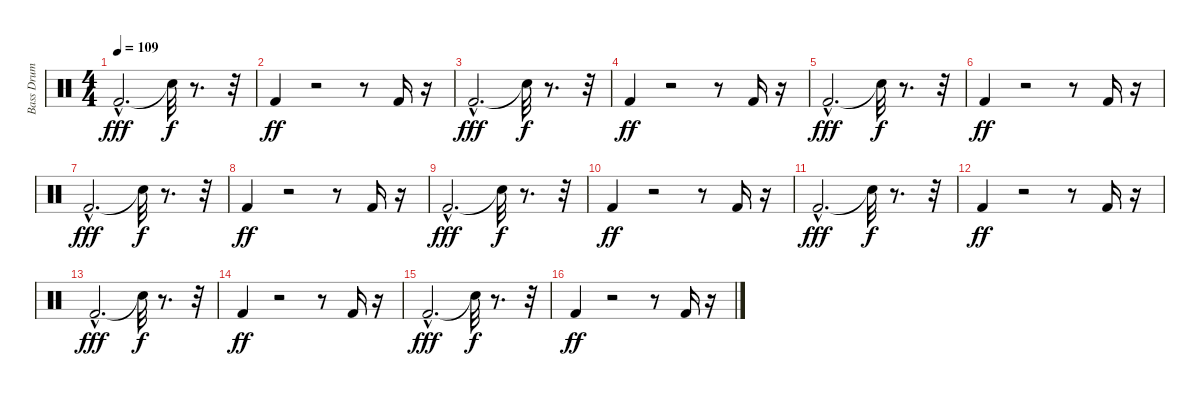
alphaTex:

\track ("Bass Drum" "Bass Drum") {instrument percussion}
\staff {score}
\articulation defaults
\ts (4 4)
\tempo 109
\clef neutral
\ks c "Kick (hit) 2"{hac}.2{d dy fff} "Snare (hit)"{t}.32{dy f}
r.8{d} r.32 |
"Kick (hit) 2".4{dy ff} r.2 r.8 "Kick (hit) 2".16 r.16 |
"Kick (hit) 2"{hac}.2{d dy fff} "Snare (hit)"{t}.32{dy f} r.8{d} r.32 |
"Kick (hit) 2".4{dy ff} r.2 r.8 "Kick (hit) 2".16 r.16 |
"Kick (hit) 2"{hac}.2{d dy fff} "Snare (hit)"{t}.32{dy f} r.8{d} r.32 |
"Kick (hit) 2".4{dy ff} r.2 r.8 "Kick (hit) 2".16 r.16 |
"Kick (hit) 2"{hac}.2{d dy fff} "Snare (hit)"{t}.32{dy f} r.8{d} r.32 |
"Kick (hit) 2".4{dy ff} r.2 r.8 "Kick (hit) 2".16 r.16 |
"Kick (hit) 2"{hac}.2{d dy fff} "Snare (hit)"{t}.32{dy f} r.8{d} r.32 |
"Kick (hit) 2".4{dy ff} r.2 r.8 "Kick (hit) 2".16 r.16 |
"Kick (hit) 2"{hac}.2{d dy fff} "Snare (hit)"{t}.32{dy f} r.8{d} r.32 |
"Kick (hit) 2".4{dy ff} r.2 r.8 "Kick (hit) 2".16 r.16 |
"Kick (hit) 2"{hac}.2{d dy fff} "Snare (hit)"{t}.32{dy f} r.8{d} r.32 |
"Kick (hit) 2".4{dy ff} r.2 r.8 "Kick (hit) 2".16 r.16 |
"Kick (hit) 2"{hac}.2{d dy fff} "Snare (hit)"{t}.32{dy f} r.8{d} r.32 |
"Kick (hit) 2".4{dy ff} r.2 r.8 "Kick (hit) 2".16 r.16
